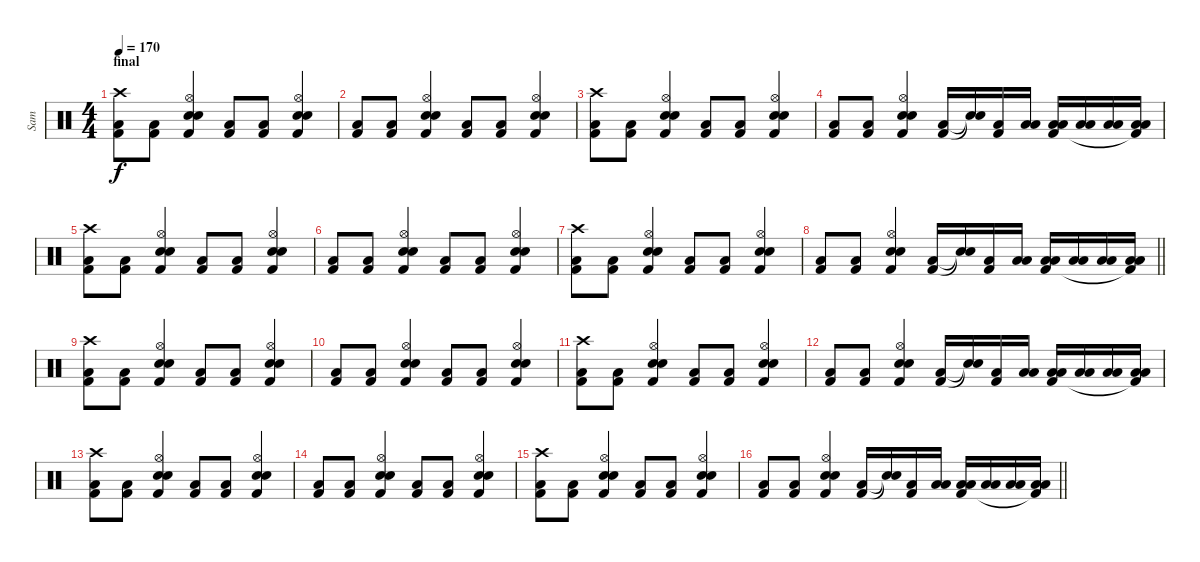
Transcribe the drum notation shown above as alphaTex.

\track ("Sam" "Sam") {instrument percussion}
\staff {score}
\articulation defaults
\ts (4 4)
\section ("" "final")
\tempo 170
\clef neutral
\ks c
("Crash high (hit)" "Low Floor Tom (hit)" "Kick (hit) 2").8{dy f} ("Low Floor Tom (hit)" "Kick (hit) 2").8 ("Hi-Hat (open)" "Snare (hit) 2" "Snare (hit) 2" "Kick (hit) 2").4 ("Low Floor Tom (hit)" "Kick (hit) 2").8 ("Low Floor Tom (hit)" "Kick (hit) 2").8 ("Hi-Hat (open)" "Snare (hit) 2" "Snare (hit) 2" "Kick (hit) 2").4 |
("Low Floor Tom (hit)" "Kick (hit) 2").8 ("Low Floor Tom (hit)" "Kick (hit) 2").8 ("Hi-Hat (open)" "Snare (hit) 2" "Snare (hit) 2" "Kick (hit) 2").4 ("Low Floor Tom (hit)" "Kick (hit) 2").8 ("Low Floor Tom (hit)" "Kick (hit) 2").8 ("Hi-Hat (open)" "Snare (hit) 2" "Snare (hit) 2" "Kick (hit) 2").4 |
("Crash high (hit)" "Low Floor Tom (hit)" "Kick (hit) 2").8 ("Low Floor Tom (hit)" "Kick (hit) 2").8 ("Hi-Hat (open)" "Snare (hit) 2" "Snare (hit) 2" "Kick (hit) 2").4 ("Low Floor Tom (hit)" "Kick (hit) 2").8 ("Low Floor Tom (hit)" "Kick (hit) 2").8 ("Hi-Hat (open)" "Snare (hit) 2" "Snare (hit) 2" "Kick (hit) 2").4 |
("Low Floor Tom (hit)" "Kick (hit) 2").8 ("Low Floor Tom (hit)" "Kick (hit) 2").8 ("Hi-Hat (open)" "Snare (hit) 2" "Snare (hit) 2" "Kick (hit) 2").4 ("Low Floor Tom (hit)" "Kick (hit) 2").16 ("Snare (hit)"{t} "Snare (hit)"{t}).16 ("Low Floor Tom (hit)" "Kick (hit) 2").16 ("Low Floor Tom (hit)" "Low Tom (hit)").16 ("Low Floor Tom (hit)" "Low Tom (hit)" "Kick (hit) 2").16 ("Low Floor Tom (hit)" "Low Tom (hit)").16 ("Low Floor Tom (hit)" "Low Tom (hit)").16 ("Low Floor Tom (hit)" "Low Tom (hit)" "Kick (hit) 2"{t}).16 |
("Crash high (hit)" "Low Floor Tom (hit)" "Kick (hit) 2").8 ("Low Floor Tom (hit)" "Kick (hit) 2").8 ("Hi-Hat (open)" "Snare (hit) 2" "Snare (hit) 2" "Kick (hit) 2").4 ("Low Floor Tom (hit)" "Kick (hit) 2").8 ("Low Floor Tom (hit)" "Kick (hit) 2").8 ("Hi-Hat (open)" "Snare (hit) 2" "Snare (hit) 2" "Kick (hit) 2").4 |
("Low Floor Tom (hit)" "Kick (hit) 2").8 ("Low Floor Tom (hit)" "Kick (hit) 2").8 ("Hi-Hat (open)" "Snare (hit) 2" "Snare (hit) 2" "Kick (hit) 2").4 ("Low Floor Tom (hit)" "Kick (hit) 2").8 ("Low Floor Tom (hit)" "Kick (hit) 2").8 ("Hi-Hat (open)" "Snare (hit) 2" "Snare (hit) 2" "Kick (hit) 2").4 |
("Crash high (hit)" "Low Floor Tom (hit)" "Kick (hit) 2").8 ("Low Floor Tom (hit)" "Kick (hit) 2").8 ("Hi-Hat (open)" "Snare (hit) 2" "Snare (hit) 2" "Kick (hit) 2").4 ("Low Floor Tom (hit)" "Kick (hit) 2").8 ("Low Floor Tom (hit)" "Kick (hit) 2").8 ("Hi-Hat (open)" "Snare (hit) 2" "Snare (hit) 2" "Kick (hit) 2").4 |
\barLineRight lightlight
("Low Floor Tom (hit)" "Kick (hit) 2").8 ("Low Floor Tom (hit)" "Kick (hit) 2").8 ("Hi-Hat (open)" "Snare (hit) 2" "Snare (hit) 2" "Kick (hit) 2").4 ("Low Floor Tom (hit)" "Kick (hit) 2").16 ("Snare (hit)"{t} "Snare (hit)"{t}).16 ("Low Floor Tom (hit)" "Kick (hit) 2").16 ("Low Floor Tom (hit)" "Low Tom (hit)").16 ("Low Floor Tom (hit)" "Low Tom (hit)" "Kick (hit) 2").16 ("Low Floor Tom (hit)" "Low Tom (hit)").16 ("Low Floor Tom (hit)" "Low Tom (hit)").16 ("Low Floor Tom (hit)" "Low Tom (hit)" "Kick (hit) 2"{t}).16 |
("Crash high (hit)" "Low Floor Tom (hit)" "Kick (hit) 2").8 ("Low Floor Tom (hit)" "Kick (hit) 2").8 ("Hi-Hat (open)" "Snare (hit) 2" "Snare (hit) 2" "Kick (hit) 2").4 ("Low Floor Tom (hit)" "Kick (hit) 2").8 ("Low Floor Tom (hit)" "Kick (hit) 2").8 ("Hi-Hat (open)" "Snare (hit) 2" "Snare (hit) 2" "Kick (hit) 2").4 |
("Low Floor Tom (hit)" "Kick (hit) 2").8 ("Low Floor Tom (hit)" "Kick (hit) 2").8 ("Hi-Hat (open)" "Snare (hit) 2" "Snare (hit) 2" "Kick (hit) 2").4 ("Low Floor Tom (hit)" "Kick (hit) 2").8 ("Low Floor Tom (hit)" "Kick (hit) 2").8 ("Hi-Hat (open)" "Snare (hit) 2" "Snare (hit) 2" "Kick (hit) 2").4 |
("Crash high (hit)" "Low Floor Tom (hit)" "Kick (hit) 2").8 ("Low Floor Tom (hit)" "Kick (hit) 2").8 ("Hi-Hat (open)" "Snare (hit) 2" "Snare (hit) 2" "Kick (hit) 2").4 ("Low Floor Tom (hit)" "Kick (hit) 2").8 ("Low Floor Tom (hit)" "Kick (hit) 2").8 ("Hi-Hat (open)" "Snare (hit) 2" "Snare (hit) 2" "Kick (hit) 2").4 |
("Low Floor Tom (hit)" "Kick (hit) 2").8 ("Low Floor Tom (hit)" "Kick (hit) 2").8 ("Hi-Hat (open)" "Snare (hit) 2" "Snare (hit) 2" "Kick (hit) 2").4 ("Low Floor Tom (hit)" "Kick (hit) 2").16 ("Snare (hit)"{t} "Snare (hit)"{t}).16 ("Low Floor Tom (hit)" "Kick (hit) 2").16 ("Low Floor Tom (hit)" "Low Tom (hit)").16 ("Low Floor Tom (hit)" "Low Tom (hit)" "Kick (hit) 2").16 ("Low Floor Tom (hit)" "Low Tom (hit)").16 ("Low Floor Tom (hit)" "Low Tom (hit)").16 ("Low Floor Tom (hit)" "Low Tom (hit)" "Kick (hit) 2"{t}).16 |
("Crash high (hit)" "Low Floor Tom (hit)" "Kick (hit) 2").8 ("Low Floor Tom (hit)" "Kick (hit) 2").8 ("Hi-Hat (open)" "Snare (hit) 2" "Snare (hit) 2" "Kick (hit) 2").4 ("Low Floor Tom (hit)" "Kick (hit) 2").8 ("Low Floor Tom (hit)" "Kick (hit) 2").8 ("Hi-Hat (open)" "Snare (hit) 2" "Snare (hit) 2" "Kick (hit) 2").4 |
("Low Floor Tom (hit)" "Kick (hit) 2").8 ("Low Floor Tom (hit)" "Kick (hit) 2").8 ("Hi-Hat (open)" "Snare (hit) 2" "Snare (hit) 2" "Kick (hit) 2").4 ("Low Floor Tom (hit)" "Kick (hit) 2").8 ("Low Floor Tom (hit)" "Kick (hit) 2").8 ("Hi-Hat (open)" "Snare (hit) 2" "Snare (hit) 2" "Kick (hit) 2").4 |
("Crash high (hit)" "Low Floor Tom (hit)" "Kick (hit) 2").8 ("Low Floor Tom (hit)" "Kick (hit) 2").8 ("Hi-Hat (open)" "Snare (hit) 2" "Snare (hit) 2" "Kick (hit) 2").4 ("Low Floor Tom (hit)" "Kick (hit) 2").8 ("Low Floor Tom (hit)" "Kick (hit) 2").8 ("Hi-Hat (open)" "Snare (hit) 2" "Snare (hit) 2" "Kick (hit) 2").4 |
\barLineRight lightlight
("Low Floor Tom (hit)" "Kick (hit) 2").8 ("Low Floor Tom (hit)" "Kick (hit) 2").8 ("Hi-Hat (open)" "Snare (hit) 2" "Snare (hit) 2" "Kick (hit) 2").4 ("Low Floor Tom (hit)" "Kick (hit) 2").16 ("Snare (hit)"{t} "Snare (hit)"{t}).16 ("Low Floor Tom (hit)" "Kick (hit) 2").16 ("Low Floor Tom (hit)" "Low Tom (hit)").16 ("Low Floor Tom (hit)" "Low Tom (hit)" "Kick (hit) 2").16 ("Low Floor Tom (hit)" "Low Tom (hit)").16 ("Low Floor Tom (hit)" "Low Tom (hit)").16 ("Low Floor Tom (hit)" "Low Tom (hit)" "Kick (hit) 2"{t}).16
